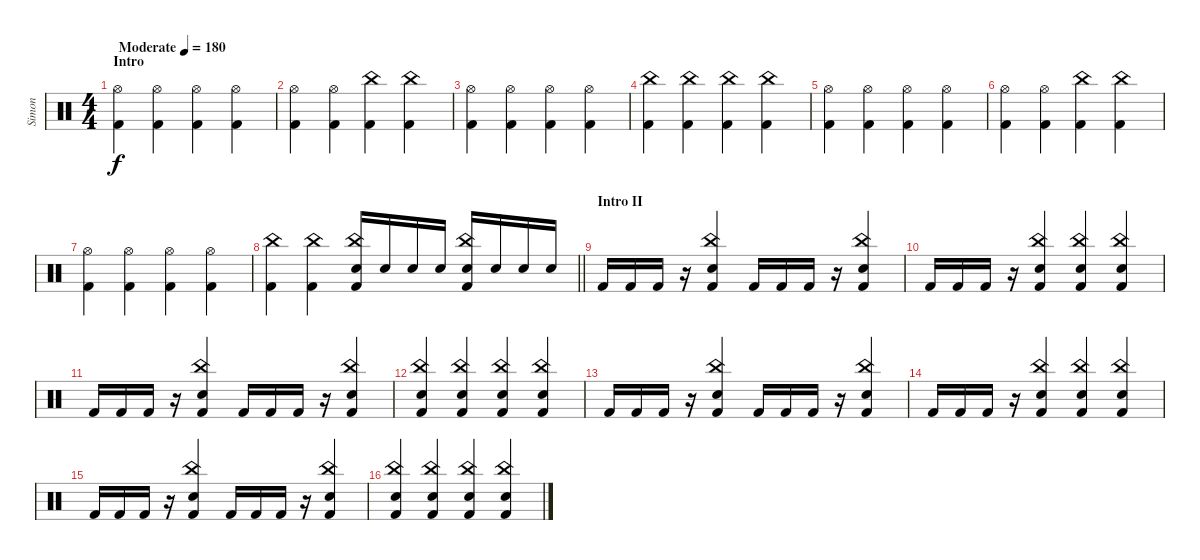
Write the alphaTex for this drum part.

\track ("Simon" "Simon") {instrument percussion}
\staff {score}
\articulation defaults
\ts (4 4)
\section ("" "Intro")
\tempo (180 "Moderate")
\clef neutral
\ks c
("Hi-Hat (open)" "Kick (hit) 2").4{dy f} ("Hi-Hat (open)" "Kick (hit) 2").4 ("Hi-Hat (open)" "Kick (hit) 2").4 ("Hi-Hat (open)" "Kick (hit) 2").4 |
("Hi-Hat (open)" "Kick (hit) 2").4 ("Hi-Hat (open)" "Kick (hit) 2").4 ("China (hit)" "Kick (hit) 2").4 ("China (hit)" "Kick (hit) 2").4 |
("Hi-Hat (open)" "Kick (hit) 2").4 ("Hi-Hat (open)" "Kick (hit) 2").4 ("Hi-Hat (open)" "Kick (hit) 2").4 ("Hi-Hat (open)" "Kick (hit) 2").4 |
("China (hit)" "Kick (hit) 2").4 ("China (hit)" "Kick (hit) 2").4 ("China (hit)" "Kick (hit) 2").4 ("China (hit)" "Kick (hit) 2").4 |
("Hi-Hat (open)" "Kick (hit) 2").4 ("Hi-Hat (open)" "Kick (hit) 2").4 ("Hi-Hat (open)" "Kick (hit) 2").4 ("Hi-Hat (open)" "Kick (hit) 2").4 |
("Hi-Hat (open)" "Kick (hit) 2").4 ("Hi-Hat (open)" "Kick (hit) 2").4 ("China (hit)" "Kick (hit) 2").4 ("China (hit)" "Kick (hit) 2").4 |
("Hi-Hat (open)" "Kick (hit) 2").4 ("Hi-Hat (open)" "Kick (hit) 2").4 ("Hi-Hat (open)" "Kick (hit) 2").4 ("Hi-Hat (open)" "Kick (hit) 2").4 |
\barLineRight lightlight
("China (hit)" "Kick (hit) 2").4 ("China (hit)" "Kick (hit) 2").4 ("China (hit)" "Electric Snare (hit)" "Kick (hit) 2").16 "Electric Snare (hit)".16 "Electric Snare (hit)".16 "Electric Snare (hit)".16 ("China (hit)" "Electric Snare (hit)" "Kick (hit) 2").16 "Electric Snare (hit)".16 "Electric Snare (hit)".16 "Electric Snare (hit)".16 |
\section ("" "Intro II")
"Kick (hit) 2".16 "Kick (hit) 2".16 "Kick (hit) 2".16 r.16 ("China (hit)" "Electric Snare (hit)" "Kick (hit) 2").4 "Kick (hit) 2".16 "Kick (hit) 2".16 "Kick (hit) 2".16 r.16 ("China (hit)" "Electric Snare (hit)" "Kick (hit) 2").4 |
"Kick (hit) 2".16 "Kick (hit) 2".16 "Kick (hit) 2".16 r.16 ("China (hit)" "Electric Snare (hit)" "Kick (hit) 2").4 ("China (hit)" "Electric Snare (hit)" "Kick (hit) 2").4 ("China (hit)" "Electric Snare (hit)" "Kick (hit) 2").4 |
"Kick (hit) 2".16 "Kick (hit) 2".16 "Kick (hit) 2".16 r.16 ("China (hit)" "Electric Snare (hit)" "Kick (hit) 2").4 "Kick (hit) 2".16 "Kick (hit) 2".16 "Kick (hit) 2".16 r.16 ("China (hit)" "Electric Snare (hit)" "Kick (hit) 2").4 |
("China (hit)" "Electric Snare (hit)" "Kick (hit) 2").4 ("China (hit)" "Electric Snare (hit)" "Kick (hit) 2").4 ("China (hit)" "Electric Snare (hit)" "Kick (hit) 2").4 ("China (hit)" "Electric Snare (hit)" "Kick (hit) 2").4 |
"Kick (hit) 2".16 "Kick (hit) 2".16 "Kick (hit) 2".16 r.16 ("China (hit)" "Electric Snare (hit)" "Kick (hit) 2").4 "Kick (hit) 2".16 "Kick (hit) 2".16 "Kick (hit) 2".16 r.16 ("China (hit)" "Electric Snare (hit)" "Kick (hit) 2").4 |
"Kick (hit) 2".16 "Kick (hit) 2".16 "Kick (hit) 2".16 r.16 ("China (hit)" "Electric Snare (hit)" "Kick (hit) 2").4 ("China (hit)" "Electric Snare (hit)" "Kick (hit) 2").4 ("China (hit)" "Electric Snare (hit)" "Kick (hit) 2").4 |
"Kick (hit) 2".16 "Kick (hit) 2".16 "Kick (hit) 2".16 r.16 ("China (hit)" "Electric Snare (hit)" "Kick (hit) 2").4 "Kick (hit) 2".16 "Kick (hit) 2".16 "Kick (hit) 2".16 r.16 ("China (hit)" "Electric Snare (hit)" "Kick (hit) 2").4 |
("China (hit)" "Electric Snare (hit)" "Kick (hit) 2").4 ("China (hit)" "Electric Snare (hit)" "Kick (hit) 2").4 ("China (hit)" "Electric Snare (hit)" "Kick (hit) 2").4 ("China (hit)" "Electric Snare (hit)" "Kick (hit) 2").4
